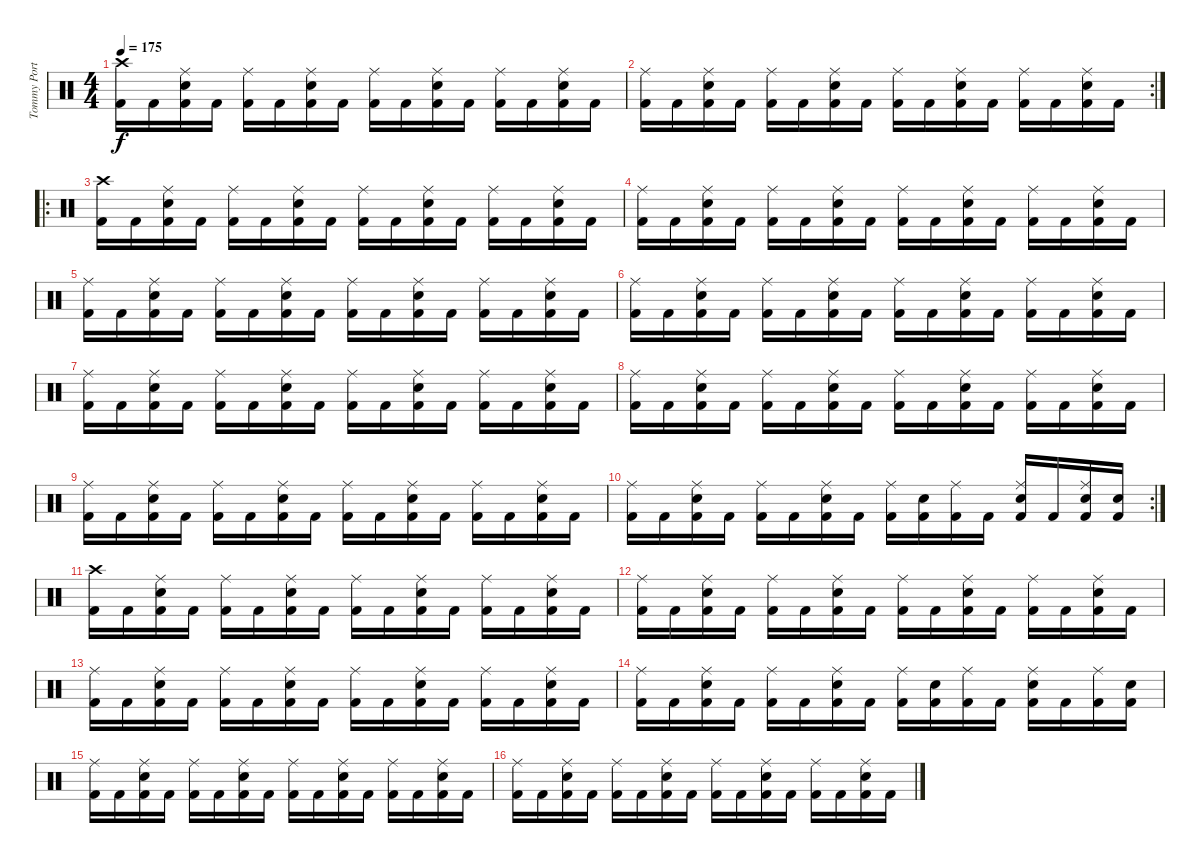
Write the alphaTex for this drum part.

\track ("Tommy Portimo" "Tommy Port") {instrument percussion}
\staff {score}
\articulation defaults
\ts (4 4)
\tempo 175
\clef neutral
\ks c
("Crash high (hit)" "Kick (hit) 2").16{dy f} "Kick (hit) 2".16 ("Ride (middle)" "Electric Snare (hit)" "Kick (hit) 2").16 "Kick (hit) 2".16 ("Ride (middle)" "Kick (hit) 2").16 "Kick (hit) 2".16 ("Ride (middle)" "Electric Snare (hit)" "Kick (hit) 2").16 "Kick (hit) 2".16 ("Ride (middle)" "Kick (hit) 2").16 "Kick (hit) 2".16 ("Ride (middle)" "Electric Snare (hit)" "Kick (hit) 2").16 "Kick (hit) 2".16 ("Ride (middle)" "Kick (hit) 2").16 "Kick (hit) 2".16 ("Ride (middle)" "Electric Snare (hit)" "Kick (hit) 2").16 "Kick (hit) 2".16 |
\rc 2
("Ride (middle)" "Kick (hit) 2").16 "Kick (hit) 2".16 ("Ride (middle)" "Electric Snare (hit)" "Kick (hit) 2").16 "Kick (hit) 2".16 ("Ride (middle)" "Kick (hit) 2").16 "Kick (hit) 2".16 ("Ride (middle)" "Electric Snare (hit)" "Kick (hit) 2").16 "Kick (hit) 2".16 ("Ride (middle)" "Kick (hit) 2").16 "Kick (hit) 2".16 ("Ride (middle)" "Electric Snare (hit)" "Kick (hit) 2").16 "Kick (hit) 2".16 ("Ride (middle)" "Kick (hit) 2").16 "Kick (hit) 2".16 ("Ride (middle)" "Electric Snare (hit)" "Kick (hit) 2").16 "Kick (hit) 2".16 |
\ro
("Crash high (hit)" "Kick (hit) 2").16 "Kick (hit) 2".16 ("Ride (middle)" "Electric Snare (hit)" "Kick (hit) 2").16 "Kick (hit) 2".16 ("Ride (middle)" "Kick (hit) 2").16 "Kick (hit) 2".16 ("Ride (middle)" "Electric Snare (hit)" "Kick (hit) 2").16 "Kick (hit) 2".16 ("Ride (middle)" "Kick (hit) 2").16 "Kick (hit) 2".16 ("Ride (middle)" "Electric Snare (hit)" "Kick (hit) 2").16 "Kick (hit) 2".16 ("Ride (middle)" "Kick (hit) 2").16 "Kick (hit) 2".16 ("Ride (middle)" "Electric Snare (hit)" "Kick (hit) 2").16 "Kick (hit) 2".16 |
("Ride (middle)" "Kick (hit) 2").16 "Kick (hit) 2".16 ("Ride (middle)" "Electric Snare (hit)" "Kick (hit) 2").16 "Kick (hit) 2".16 ("Ride (middle)" "Kick (hit) 2").16 "Kick (hit) 2".16 ("Ride (middle)" "Electric Snare (hit)" "Kick (hit) 2").16 "Kick (hit) 2".16 ("Ride (middle)" "Kick (hit) 2").16 "Kick (hit) 2".16 ("Ride (middle)" "Electric Snare (hit)" "Kick (hit) 2").16 "Kick (hit) 2".16 ("Ride (middle)" "Kick (hit) 2").16 "Kick (hit) 2".16 ("Ride (middle)" "Electric Snare (hit)" "Kick (hit) 2").16 "Kick (hit) 2".16 |
("Ride (middle)" "Kick (hit) 2").16 "Kick (hit) 2".16 ("Ride (middle)" "Electric Snare (hit)" "Kick (hit) 2").16 "Kick (hit) 2".16 ("Ride (middle)" "Kick (hit) 2").16 "Kick (hit) 2".16 ("Ride (middle)" "Electric Snare (hit)" "Kick (hit) 2").16 "Kick (hit) 2".16 ("Ride (middle)" "Kick (hit) 2").16 "Kick (hit) 2".16 ("Ride (middle)" "Electric Snare (hit)" "Kick (hit) 2").16 "Kick (hit) 2".16 ("Ride (middle)" "Kick (hit) 2").16 "Kick (hit) 2".16 ("Ride (middle)" "Electric Snare (hit)" "Kick (hit) 2").16 "Kick (hit) 2".16 |
("Ride (middle)" "Kick (hit) 2").16 "Kick (hit) 2".16 ("Ride (middle)" "Electric Snare (hit)" "Kick (hit) 2").16 "Kick (hit) 2".16 ("Ride (middle)" "Kick (hit) 2").16 "Kick (hit) 2".16 ("Ride (middle)" "Electric Snare (hit)" "Kick (hit) 2").16 "Kick (hit) 2".16 ("Ride (middle)" "Kick (hit) 2").16 "Kick (hit) 2".16 ("Ride (middle)" "Electric Snare (hit)" "Kick (hit) 2").16 "Kick (hit) 2".16 ("Ride (middle)" "Kick (hit) 2").16 "Kick (hit) 2".16 ("Ride (middle)" "Electric Snare (hit)" "Kick (hit) 2").16 "Kick (hit) 2".16 |
("Ride (middle)" "Kick (hit) 2").16 "Kick (hit) 2".16 ("Ride (middle)" "Electric Snare (hit)" "Kick (hit) 2").16 "Kick (hit) 2".16 ("Ride (middle)" "Kick (hit) 2").16 "Kick (hit) 2".16 ("Ride (middle)" "Electric Snare (hit)" "Kick (hit) 2").16 "Kick (hit) 2".16 ("Ride (middle)" "Kick (hit) 2").16 "Kick (hit) 2".16 ("Ride (middle)" "Electric Snare (hit)" "Kick (hit) 2").16 "Kick (hit) 2".16 ("Ride (middle)" "Kick (hit) 2").16 "Kick (hit) 2".16 ("Ride (middle)" "Electric Snare (hit)" "Kick (hit) 2").16 "Kick (hit) 2".16 |
("Ride (middle)" "Kick (hit) 2").16 "Kick (hit) 2".16 ("Ride (middle)" "Electric Snare (hit)" "Kick (hit) 2").16 "Kick (hit) 2".16 ("Ride (middle)" "Kick (hit) 2").16 "Kick (hit) 2".16 ("Ride (middle)" "Electric Snare (hit)" "Kick (hit) 2").16 "Kick (hit) 2".16 ("Ride (middle)" "Kick (hit) 2").16 "Kick (hit) 2".16 ("Ride (middle)" "Electric Snare (hit)" "Kick (hit) 2").16 "Kick (hit) 2".16 ("Ride (middle)" "Kick (hit) 2").16 "Kick (hit) 2".16 ("Ride (middle)" "Electric Snare (hit)" "Kick (hit) 2").16 "Kick (hit) 2".16 |
("Ride (middle)" "Kick (hit) 2").16 "Kick (hit) 2".16 ("Ride (middle)" "Electric Snare (hit)" "Kick (hit) 2").16 "Kick (hit) 2".16 ("Ride (middle)" "Kick (hit) 2").16 "Kick (hit) 2".16 ("Ride (middle)" "Electric Snare (hit)" "Kick (hit) 2").16 "Kick (hit) 2".16 ("Ride (middle)" "Kick (hit) 2").16 "Kick (hit) 2".16 ("Ride (middle)" "Electric Snare (hit)" "Kick (hit) 2").16 "Kick (hit) 2".16 ("Ride (middle)" "Kick (hit) 2").16 "Kick (hit) 2".16 ("Ride (middle)" "Electric Snare (hit)" "Kick (hit) 2").16 "Kick (hit) 2".16 |
\rc 2
("Ride (middle)" "Kick (hit) 2").16 "Kick (hit) 2".16 ("Ride (middle)" "Electric Snare (hit)" "Kick (hit) 2").16 "Kick (hit) 2".16 ("Ride (middle)" "Kick (hit) 2").16 "Kick (hit) 2".16 ("Ride (middle)" "Electric Snare (hit)" "Kick (hit) 2").16 "Kick (hit) 2".16 ("Ride (middle)" "Kick (hit) 2").16 ("Electric Snare (hit)" "Kick (hit) 2").16 ("Ride (middle)" "Kick (hit) 2").16 "Kick (hit) 2".16 ("Ride (middle)" "Electric Snare (hit)" "Kick (hit) 2").16 "Kick (hit) 2".16 ("Ride (middle)" "Electric Snare (hit)" "Kick (hit) 2").16 ("Electric Snare (hit)" "Kick (hit) 2").16 |
("Crash high (hit)" "Kick (hit) 2").16 "Kick (hit) 2".16 ("Ride (middle)" "Electric Snare (hit)" "Kick (hit) 2").16 "Kick (hit) 2".16 ("Ride (middle)" "Kick (hit) 2").16 "Kick (hit) 2".16 ("Ride (middle)" "Electric Snare (hit)" "Kick (hit) 2").16 "Kick (hit) 2".16 ("Ride (middle)" "Kick (hit) 2").16 "Kick (hit) 2".16 ("Ride (middle)" "Electric Snare (hit)" "Kick (hit) 2").16 "Kick (hit) 2".16 ("Ride (middle)" "Kick (hit) 2").16 "Kick (hit) 2".16 ("Ride (middle)" "Electric Snare (hit)" "Kick (hit) 2").16 "Kick (hit) 2".16 |
("Ride (middle)" "Kick (hit) 2").16 "Kick (hit) 2".16 ("Ride (middle)" "Electric Snare (hit)" "Kick (hit) 2").16 "Kick (hit) 2".16 ("Ride (middle)" "Kick (hit) 2").16 "Kick (hit) 2".16 ("Ride (middle)" "Electric Snare (hit)" "Kick (hit) 2").16 "Kick (hit) 2".16 ("Ride (middle)" "Kick (hit) 2").16 "Kick (hit) 2".16 ("Ride (middle)" "Electric Snare (hit)" "Kick (hit) 2").16 "Kick (hit) 2".16 ("Ride (middle)" "Kick (hit) 2").16 "Kick (hit) 2".16 ("Ride (middle)" "Electric Snare (hit)" "Kick (hit) 2").16 "Kick (hit) 2".16 |
("Ride (middle)" "Kick (hit) 2").16 "Kick (hit) 2".16 ("Ride (middle)" "Electric Snare (hit)" "Kick (hit) 2").16 "Kick (hit) 2".16 ("Ride (middle)" "Kick (hit) 2").16 "Kick (hit) 2".16 ("Ride (middle)" "Electric Snare (hit)" "Kick (hit) 2").16 "Kick (hit) 2".16 ("Ride (middle)" "Kick (hit) 2").16 "Kick (hit) 2".16 ("Ride (middle)" "Electric Snare (hit)" "Kick (hit) 2").16 "Kick (hit) 2".16 ("Ride (middle)" "Kick (hit) 2").16 "Kick (hit) 2".16 ("Ride (middle)" "Electric Snare (hit)" "Kick (hit) 2").16 "Kick (hit) 2".16 |
("Ride (middle)" "Kick (hit) 2").16 "Kick (hit) 2".16 ("Ride (middle)" "Electric Snare (hit)" "Kick (hit) 2").16 "Kick (hit) 2".16 ("Ride (middle)" "Kick (hit) 2").16 "Kick (hit) 2".16 ("Ride (middle)" "Electric Snare (hit)" "Kick (hit) 2").16 "Kick (hit) 2".16 ("Ride (middle)" "Kick (hit) 2").16 ("Electric Snare (hit)" "Kick (hit) 2").16 ("Ride (middle)" "Kick (hit) 2").16 "Kick (hit) 2".16 ("Ride (middle)" "Electric Snare (hit)" "Kick (hit) 2").16 "Kick (hit) 2".16 ("Ride (middle)" "Kick (hit) 2").16 ("Electric Snare (hit)" "Kick (hit) 2").16 |
("Ride (middle)" "Kick (hit) 2").16 "Kick (hit) 2".16 ("Ride (middle)" "Electric Snare (hit)" "Kick (hit) 2").16 "Kick (hit) 2".16 ("Ride (middle)" "Kick (hit) 2").16 "Kick (hit) 2".16 ("Ride (middle)" "Electric Snare (hit)" "Kick (hit) 2").16 "Kick (hit) 2".16 ("Ride (middle)" "Kick (hit) 2").16 "Kick (hit) 2".16 ("Ride (middle)" "Electric Snare (hit)" "Kick (hit) 2").16 "Kick (hit) 2".16 ("Ride (middle)" "Kick (hit) 2").16 "Kick (hit) 2".16 ("Ride (middle)" "Electric Snare (hit)" "Kick (hit) 2").16 "Kick (hit) 2".16 |
("Ride (middle)" "Kick (hit) 2").16 "Kick (hit) 2".16 ("Ride (middle)" "Electric Snare (hit)" "Kick (hit) 2").16 "Kick (hit) 2".16 ("Ride (middle)" "Kick (hit) 2").16 "Kick (hit) 2".16 ("Ride (middle)" "Electric Snare (hit)" "Kick (hit) 2").16 "Kick (hit) 2".16 ("Ride (middle)" "Kick (hit) 2").16 "Kick (hit) 2".16 ("Ride (middle)" "Electric Snare (hit)" "Kick (hit) 2").16 "Kick (hit) 2".16 ("Ride (middle)" "Kick (hit) 2").16 "Kick (hit) 2".16 ("Ride (middle)" "Electric Snare (hit)" "Kick (hit) 2").16 "Kick (hit) 2".16
